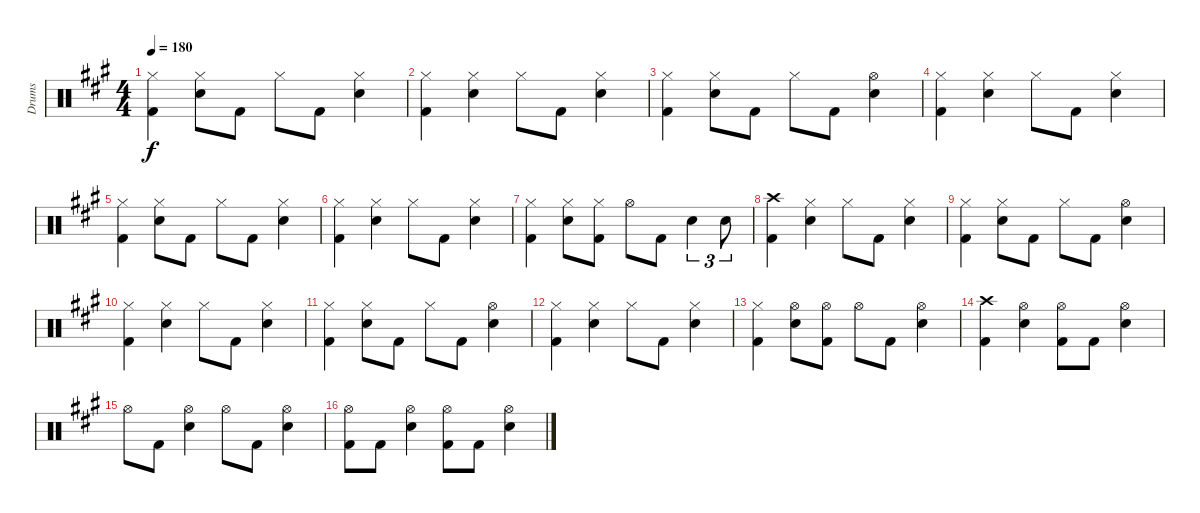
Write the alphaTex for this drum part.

\track ("Drums" "Drums") {instrument percussion}
\staff {score}
\articulation defaults
\ts (4 4)
\tempo 180
\clef neutral
\ks a
("Hi-Hat (closed)" "Kick (hit) 2").4{dy f} ("Hi-Hat (closed)" "Electric Snare (hit)").8 "Kick (hit) 2".8 "Hi-Hat (closed)".8 "Kick (hit) 2".8 ("Hi-Hat (closed)" "Electric Snare (hit)").4 |
("Hi-Hat (closed)" "Kick (hit) 2").4 ("Hi-Hat (closed)" "Electric Snare (hit)").4 "Hi-Hat (closed)".8 "Kick (hit) 2".8 ("Hi-Hat (closed)" "Electric Snare (hit)").4 |
("Hi-Hat (closed)" "Kick (hit) 2").4 ("Hi-Hat (closed)" "Electric Snare (hit)").8 "Kick (hit) 2".8 "Hi-Hat (closed)".8 "Kick (hit) 2".8 ("Hi-Hat (open)" "Electric Snare (hit)").4 |
("Hi-Hat (closed)" "Kick (hit) 2").4 ("Hi-Hat (closed)" "Electric Snare (hit)").4 "Hi-Hat (closed)".8 "Kick (hit) 2".8 ("Hi-Hat (closed)" "Electric Snare (hit)").4 |
("Hi-Hat (closed)" "Kick (hit) 2").4 ("Hi-Hat (closed)" "Electric Snare (hit)").8 "Kick (hit) 2".8 "Hi-Hat (closed)".8 "Kick (hit) 2".8 ("Hi-Hat (closed)" "Electric Snare (hit)").4 |
("Hi-Hat (closed)" "Kick (hit) 2").4 ("Hi-Hat (closed)" "Electric Snare (hit)").4 "Hi-Hat (closed)".8 "Kick (hit) 2".8 ("Hi-Hat (closed)" "Electric Snare (hit)").4 |
("Hi-Hat (closed)" "Kick (hit) 2").4 ("Hi-Hat (closed)" "Electric Snare (hit)").8 ("Hi-Hat (closed)" "Kick (hit) 2").8 "Hi-Hat (open)".8 "Kick (hit) 2".8 "Electric Snare (hit)".4{tu (3 2)} "Electric Snare (hit)".8{tu (3 2)} |
("Crash high (hit)" "Kick (hit) 2").4 ("Hi-Hat (closed)" "Electric Snare (hit)").4 "Hi-Hat (closed)".8 "Kick (hit) 2".8 ("Hi-Hat (closed)" "Electric Snare (hit)").4 |
("Hi-Hat (closed)" "Kick (hit) 2").4 ("Hi-Hat (closed)" "Electric Snare (hit)").8 "Kick (hit) 2".8 "Hi-Hat (closed)".8 "Kick (hit) 2".8 ("Hi-Hat (open)" "Electric Snare (hit)").4 |
("Hi-Hat (closed)" "Kick (hit) 2").4 ("Hi-Hat (closed)" "Electric Snare (hit)").4 "Hi-Hat (closed)".8 "Kick (hit) 2".8 ("Hi-Hat (closed)" "Electric Snare (hit)").4 |
("Hi-Hat (closed)" "Kick (hit) 2").4 ("Hi-Hat (closed)" "Electric Snare (hit)").8 "Kick (hit) 2".8 "Hi-Hat (closed)".8 "Kick (hit) 2".8 ("Hi-Hat (open)" "Electric Snare (hit)").4 |
("Hi-Hat (closed)" "Kick (hit) 2").4 ("Hi-Hat (closed)" "Electric Snare (hit)").4 "Hi-Hat (closed)".8 "Kick (hit) 2".8 ("Hi-Hat (closed)" "Electric Snare (hit)").4 |
("Hi-Hat (closed)" "Kick (hit) 2").4 ("Hi-Hat (open)" "Electric Snare (hit)").8 ("Hi-Hat (open)" "Kick (hit) 2").8 "Hi-Hat (open)".8 "Kick (hit) 2".8 ("Hi-Hat (open)" "Electric Snare (hit)").4 |
("Crash high (hit)" "Kick (hit) 2").4 ("Hi-Hat (open)" "Electric Snare (hit)").4 ("Hi-Hat (open)" "Kick (hit) 2").8 "Kick (hit) 2".8 ("Hi-Hat (open)" "Electric Snare (hit)").4 |
"Hi-Hat (open)".8 "Kick (hit) 2".8 ("Hi-Hat (open)" "Electric Snare (hit)").4 "Hi-Hat (open)".8 "Kick (hit) 2".8 ("Hi-Hat (open)" "Electric Snare (hit)").4 |
("Hi-Hat (open)" "Kick (hit) 2").8 "Kick (hit) 2".8 ("Hi-Hat (open)" "Electric Snare (hit)").4 ("Hi-Hat (open)" "Kick (hit) 2").8 "Kick (hit) 2".8 ("Hi-Hat (open)" "Electric Snare (hit)").4
